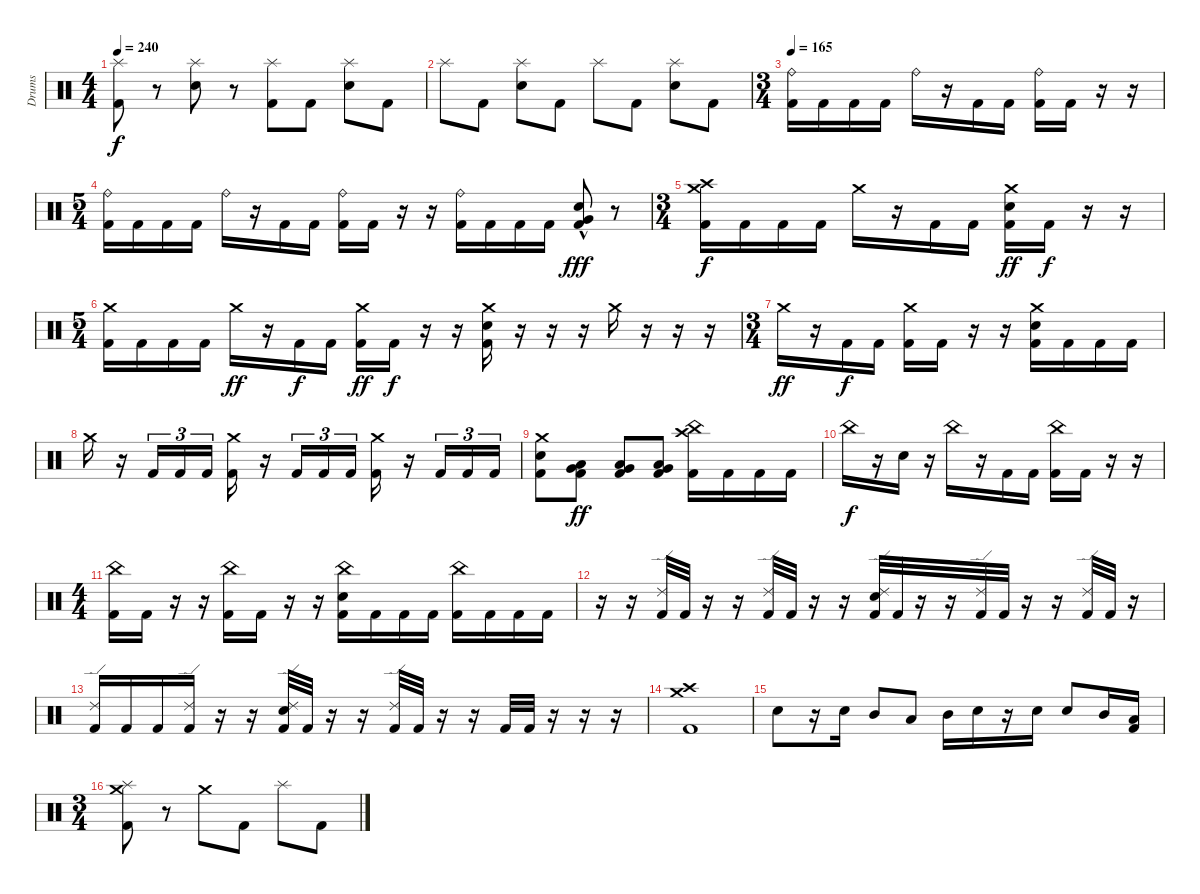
\track ("Drums" "Drums") {instrument percussion}
\staff {score}
\articulation defaults
\ts (4 4)
\tempo 240
\clef neutral
\ks c
("Splash (hit)" "Kick (hit) 2").8{dy f} r.8 ("Splash (hit)" "Electric Snare (hit)").8 r.8 ("Splash (hit)" "Kick (hit) 2").8 "Kick (hit) 2".8 ("Splash (hit)" "Electric Snare (hit)").8 "Kick (hit) 2".8 |
"Splash (hit)".8 "Kick (hit) 2".8 ("Splash (hit)" "Electric Snare (hit)").8 "Kick (hit) 2".8 "Splash (hit)".8 "Kick (hit) 2".8 ("Splash (hit)" "Electric Snare (hit)").8 "Kick (hit) 2".8 |
\ts (3 4)
\tempo 165
("Ride (bell)" "Kick (hit) 2").16 "Kick (hit) 2".16 "Kick (hit) 2".16 "Kick (hit) 2".16 "Ride (bell)".16 r.16 "Kick (hit) 2".16 "Kick (hit) 2".16 ("Ride (bell)" "Kick (hit) 2").16 "Kick (hit) 2".16 r.16 r.16 |
\ts (5 4)
("Ride (bell)" "Kick (hit) 2").16 "Kick (hit) 2".16 "Kick (hit) 2".16 "Kick (hit) 2".16 "Ride (bell)".16 r.16 "Kick (hit) 2".16 "Kick (hit) 2".16 ("Ride (bell)" "Kick (hit) 2").16 "Kick (hit) 2".16 r.16 r.16 ("Ride (bell)" "Kick (hit) 2").16 "Kick (hit) 2".16 "Kick (hit) 2".16 "Kick (hit) 2".16 ("Electric Snare (hit)"{hac} "Very Low Tom (hit)" "Kick (hit) 2").8{dy fff} r.8 |
\ts (3 4)
("Crash high (hit)" "Crash medium (hit)" "Kick (hit) 2").16{dy f} "Kick (hit) 2".16 "Kick (hit) 2".16 "Kick (hit) 2".16 "Crash medium (hit)".16 r.16 "Kick (hit) 2".16 "Kick (hit) 2".16 ("Crash medium (hit)" "Electric Snare (hit)" "Kick (hit) 2").16{dy ff} "Kick (hit) 2".16{dy f} r.16 r.16 |
\ts (5 4)
("Crash medium (hit)" "Kick (hit) 2").16 "Kick (hit) 2".16 "Kick (hit) 2".16 "Kick (hit) 2".16 "Crash medium (hit)".16{dy ff} r.16 "Kick (hit) 2".16{dy f} "Kick (hit) 2".16 ("Crash medium (hit)" "Kick (hit) 2").16{dy ff} "Kick (hit) 2".16{dy f} r.16 r.16 ("Crash medium (hit)" "Electric Snare (hit)" "Kick (hit) 2").16 r.16 r.16 r.16 "Crash medium (hit)".16 r.16 r.16 r.16 |
\ts (3 4)
"Crash medium (hit)".16{dy ff} r.16 "Kick (hit) 2".16{dy f} "Kick (hit) 2".16 ("Crash medium (hit)" "Kick (hit) 2").16 "Kick (hit) 2".16 r.16 r.16 ("Crash medium (hit)" "Electric Snare (hit)" "Kick (hit) 2").16 "Kick (hit) 2".16 "Kick (hit) 2".16 "Kick (hit) 2".16 |
"Crash medium (hit)".16 r.16 "Kick (hit) 2".16{tu (3 2)} "Kick (hit) 2".16{tu (3 2)} "Kick (hit) 2".16{tu (3 2)} ("Crash medium (hit)" "Kick (hit) 2").16 r.16 "Kick (hit) 2".16{tu (3 2)} "Kick (hit) 2".16{tu (3 2)} "Kick (hit) 2".16{tu (3 2)} ("Crash medium (hit)" "Kick (hit) 2").16 r.16 "Kick (hit) 2".16{tu (3 2)} "Kick (hit) 2".16{tu (3 2)} "Kick (hit) 2".16{tu (3 2)} |
("Crash medium (hit)" "Electric Snare (hit)" "Kick (hit) 2").8 ("Very Low Tom (hit)" "Low Floor Tom (hit)" "Kick (hit) 2").8{dy ff} ("Very Low Tom (hit)" "Low Floor Tom (hit)" "Kick (hit) 2").8 ("Very Low Tom (hit)" "Low Floor Tom (hit)" "Kick (hit) 2").8 ("Crash high (hit)" "China (hit)" "Kick (hit) 2").16 "Kick (hit) 2".16 "Kick (hit) 2".16 "Kick (hit) 2".16 |
"China (hit)".16{dy f} r.16 "Electric Snare (hit)".16 r.16 "China (hit)".16 r.16 "Kick (hit) 2".16 "Kick (hit) 2".16 ("China (hit)" "Kick (hit) 2").16 "Kick (hit) 2".16 r.16 r.16 |
\ts (4 4)
("China (hit)" "Kick (hit) 2").16 "Kick (hit) 2".16 r.16 r.16 ("China (hit)" "Kick (hit) 2").16 "Kick (hit) 2".16 r.16 r.16 ("China (hit)" "Electric Snare (hit)" "Kick (hit) 2").16 "Kick (hit) 2".16 "Kick (hit) 2".16 "Kick (hit) 2".16 ("China (hit)" "Kick (hit) 2").16 "Kick (hit) 2".16 "Kick (hit) 2".16 "Kick (hit) 2".16 |
r.16 r.16 ("Ride (edge) 2" "Kick (hit) 2").32 "Kick (hit) 2".32 r.16 r.16 ("Ride (edge) 2" "Kick (hit) 2").32 "Kick (hit) 2".32 r.16 r.16 ("Ride (edge) 2" "Electric Snare (hit)" "Kick (hit) 2").32 "Kick (hit) 2".32 r.16 r.16 ("Ride (edge) 2" "Kick (hit) 2").32 "Kick (hit) 2".32 r.16 r.16 ("Ride (edge) 2" "Kick (hit) 2").32 "Kick (hit) 2".32 r.16 |
("Ride (edge) 2" "Kick (hit) 2").16 "Kick (hit) 2".16 "Kick (hit) 2".16 ("Ride (edge) 2" "Kick (hit) 2").16 r.16 r.16 ("Ride (edge) 2" "Electric Snare (hit)" "Kick (hit) 2").32 "Kick (hit) 2".32 r.16 r.16 ("Ride (edge) 2" "Kick (hit) 2").32 "Kick (hit) 2".32 r.16 r.16 "Kick (hit) 2".32 "Kick (hit) 2".32 r.16 r.16 r.16 |
("Crash high (hit)" "Crash medium (hit)" "Kick (hit) 2").1 |
"Electric Snare (hit)".8 r.16 "Electric Snare (hit)".16 "Mid Tom (hit)".8 "Low Tom (hit)".8 "Mid Tom (hit)".16 "Electric Snare (hit)".16 r.16 "Electric Snare (hit)".16 "Electric Snare (hit)".8 "Mid Tom (hit)".16 ("Low Tom (hit)" "Kick (hit) 2").16 |
\ts (3 4)
("Splash (hit)" "Crash medium (hit)" "Kick (hit) 2").8 r.8 "Crash medium (hit)".8 "Kick (hit) 2".8 "Splash (hit)".8 "Kick (hit) 2".8
